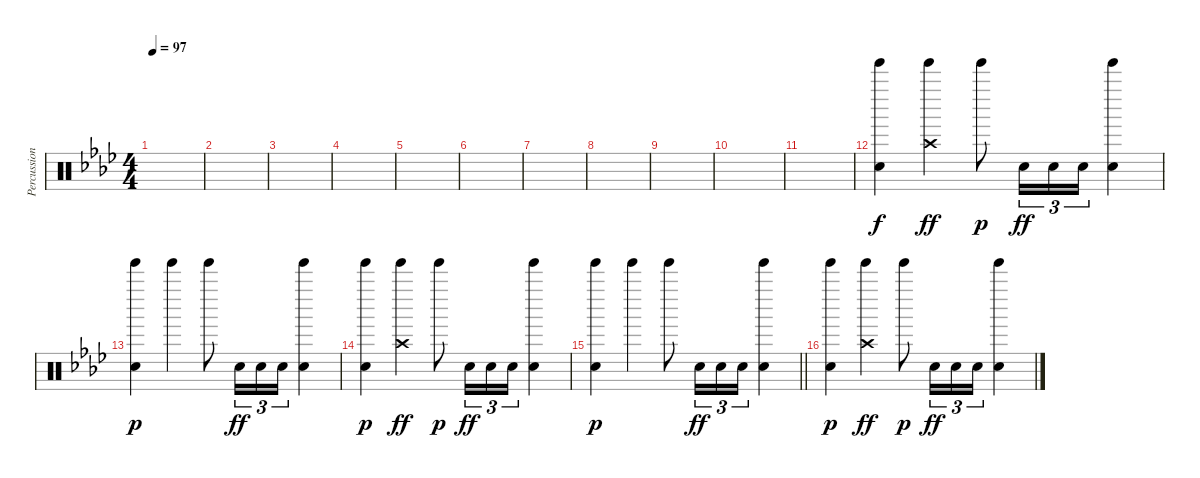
\track ("Percussion" "Percussion") {instrument percussion}
\staff {score}
\articulation defaults
\ts (4 4)
\tempo 97
\clef neutral
\ks fminor
|
|
|
|
|
|
|
|
|
|
|
("Tinkle Bell (hit)" "Snare (hit)").4 ("Tinkle Bell (hit)" "Crash high (hit)").4{dy ff} "Tinkle Bell (hit)".8{dy p} "Snare (hit) 2".16{tu (3 2) dy ff} "Snare (hit) 2".16{tu (3 2)} "Snare (hit) 2".16{tu (3 2)} ("Tinkle Bell (hit)" "Snare (hit) 2").4 |
("Tinkle Bell (hit)" "Snare (hit)").4{dy p} "Tinkle Bell (hit)".4 "Tinkle Bell (hit)".8 "Snare (hit) 2".16{tu (3 2) dy ff} "Snare (hit) 2".16{tu (3 2)} "Snare (hit) 2".16{tu (3 2)} ("Tinkle Bell (hit)" "Snare (hit) 2").4 |
("Tinkle Bell (hit)" "Snare (hit)").4{dy p} ("Tinkle Bell (hit)" "Crash high (hit)").4{dy ff} "Tinkle Bell (hit)".8{dy p} "Snare (hit) 2".16{tu (3 2) dy ff} "Snare (hit) 2".16{tu (3 2)} "Snare (hit) 2".16{tu (3 2)} ("Tinkle Bell (hit)" "Snare (hit) 2").4 |
\barLineRight lightlight
("Tinkle Bell (hit)" "Snare (hit)").4{dy p} "Tinkle Bell (hit)".4 "Tinkle Bell (hit)".8 "Snare (hit) 2".16{tu (3 2) dy ff} "Snare (hit) 2".16{tu (3 2)} "Snare (hit) 2".16{tu (3 2)} ("Tinkle Bell (hit)" "Snare (hit) 2").4 |
("Tinkle Bell (hit)" "Snare (hit)").4{dy p} ("Tinkle Bell (hit)" "Crash high (hit)").4{dy ff} "Tinkle Bell (hit)".8{dy p} "Snare (hit) 2".16{tu (3 2) dy ff} "Snare (hit) 2".16{tu (3 2)} "Snare (hit) 2".16{tu (3 2)} ("Tinkle Bell (hit)" "Snare (hit) 2").4
